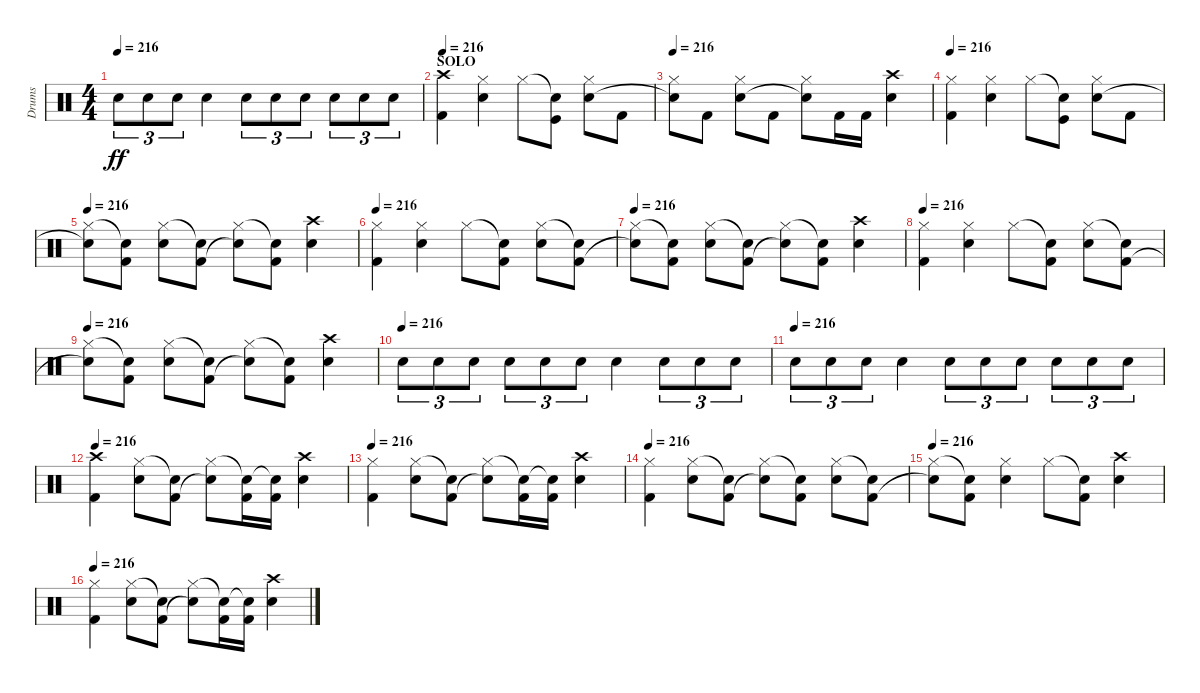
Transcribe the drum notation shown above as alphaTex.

\track ("Drums" "Drums") {instrument percussion}
\staff {score}
\articulation defaults
\ts (4 4)
\tempo 216
\clef neutral
\ks c "Snare (hit) 2".8{tu (3 2) dy ff} "Snare (hit) 2".8{tu (3 2)} "Snare (hit) 2".8{tu (3 2)} "Snare (hit) 2".4 "Snare (hit) 2".8{tu (3 2)} "Snare (hit) 2".8{tu (3 2)} "Snare (hit) 2".8{tu (3 2)} "Snare (hit) 2".8{tu (3 2)} "Snare (hit) 2".8{tu (3 2)} "Snare (hit) 2".8{tu (3 2)}
|
\section ("" "SOLO")
\tempo 216
("Crash high (hit)" "Kick (hit) 2").4 ("Hi-Hat (closed)" "Snare (hit) 2").4 "Hi-Hat (closed)".8 ("Snare (hit)"{t} "Kick (hit)").8 ("Hi-Hat (closed)" "Snare (hit) 2").8 "Kick (hit) 2".8 |
\tempo 216
("Hi-Hat (closed)" "Snare (hit)"{t}).8 "Kick (hit) 2".8 ("Hi-Hat (closed)" "Snare (hit) 2").8 "Kick (hit) 2".8 ("Hi-Hat (closed)" "Snare (hit)"{t}).8 "Kick (hit) 2".16 "Kick (hit) 2".16 ("Crash high (hit)" "Snare (hit) 2").4 |
\tempo 216
("Hi-Hat (closed)" "Kick (hit) 2").4 ("Hi-Hat (closed)" "Snare (hit) 2").4 "Hi-Hat (closed)".8 ("Snare (hit)"{t} "Kick (hit)").8 ("Hi-Hat (closed)" "Snare (hit) 2").8 "Kick (hit) 2".8 |
\tempo 216
("Hi-Hat (closed)" "Snare (hit)"{t}).8 ("Snare (hit)"{t} "Kick (hit) 2").8 ("Hi-Hat (closed)" "Snare (hit) 2").8 ("Snare (hit)"{t} "Kick (hit) 2").8 ("Hi-Hat (closed)" "Snare (hit)"{t}).8 ("Snare (hit)"{t} "Kick (hit) 2").8 ("Crash high (hit)" "Snare (hit) 2").4 |
\tempo 216
("Hi-Hat (closed)" "Kick (hit) 2").4 ("Hi-Hat (closed)" "Snare (hit) 2").4 "Hi-Hat (closed)".8 ("Snare (hit)"{t} "Kick (hit) 2").8 ("Hi-Hat (closed)" "Snare (hit) 2").8 ("Snare (hit)"{t} "Kick (hit) 2").8 |
\tempo 216
("Hi-Hat (closed)" "Snare (hit)"{t}).8 ("Snare (hit)"{t} "Kick (hit) 2").8 ("Hi-Hat (closed)" "Snare (hit) 2").8 ("Snare (hit)"{t} "Kick (hit) 2").8 ("Hi-Hat (closed)" "Snare (hit)"{t}).8 ("Snare (hit)"{t} "Kick (hit) 2").8 ("Crash high (hit)" "Snare (hit) 2").4 |
\tempo 216
("Hi-Hat (closed)" "Kick (hit) 2").4 ("Hi-Hat (closed)" "Snare (hit) 2").4 "Hi-Hat (closed)".8 ("Snare (hit)"{t} "Kick (hit) 2").8 ("Hi-Hat (closed)" "Snare (hit) 2").8 ("Snare (hit)"{t} "Kick (hit) 2").8 |
\tempo 216
("Hi-Hat (closed)" "Snare (hit)"{t}).8 ("Snare (hit)"{t} "Kick (hit) 2").8 ("Hi-Hat (closed)" "Snare (hit) 2").8 ("Snare (hit)"{t} "Kick (hit) 2").8 ("Hi-Hat (closed)" "Snare (hit)"{t}).8 ("Snare (hit)"{t} "Kick (hit) 2").8 ("Crash high (hit)" "Snare (hit) 2").4 |
\tempo (216)
"Snare (hit) 2".8{tu (3 2)} "Snare (hit) 2".8{tu (3 2)} "Snare (hit) 2".8{tu (3 2)} "Snare (hit) 2".8{tu (3 2)} "Snare (hit) 2".8{tu (3 2)} "Snare (hit) 2".8{tu (3 2)} "Snare (hit) 2".4 "Snare (hit) 2".8{tu (3 2)} "Snare (hit) 2".8{tu (3 2)} "Snare (hit) 2".8{tu (3 2)} |
\tempo (216)
"Snare (hit) 2".8{tu (3 2)} "Snare (hit) 2".8{tu (3 2)} "Snare (hit) 2".8{tu (3 2)} "Snare (hit) 2".4 "Snare (hit) 2".8{tu (3 2)} "Snare (hit) 2".8{tu (3 2)} "Snare (hit) 2".8{tu (3 2)} "Snare (hit) 2".8{tu (3 2)} "Snare (hit) 2".8{tu (3 2)} "Snare (hit) 2".8{tu (3 2)} |
\tempo 216
("Crash high (hit)" "Kick (hit) 2").4 ("Hi-Hat (closed)" "Snare (hit) 2").8 ("Snare (hit)"{t} "Kick (hit) 2").8 ("Hi-Hat (closed)" "Snare (hit)"{t}).8 ("Snare (hit)"{t} "Kick (hit) 2").16 ("Snare (hit)"{t} "Kick (hit) 2").16 ("Crash high (hit)" "Snare (hit) 2").4 |
\tempo 216
("Hi-Hat (closed)" "Kick (hit) 2").4 ("Hi-Hat (closed)" "Snare (hit) 2").8 ("Snare (hit)"{t} "Kick (hit) 2").8 ("Hi-Hat (closed)" "Snare (hit)"{t}).8 ("Snare (hit)"{t} "Kick (hit) 2").16 ("Snare (hit)"{t} "Kick (hit) 2").16 ("Crash high (hit)" "Snare (hit) 2").4 |
\tempo 216
("Hi-Hat (closed)" "Kick (hit) 2").4 ("Hi-Hat (closed)" "Snare (hit) 2").8 ("Snare (hit)"{t} "Kick (hit) 2").8 ("Hi-Hat (closed)" "Snare (hit)"{t}).8 ("Snare (hit)"{t} "Kick (hit) 2").8 ("Hi-Hat (closed)" "Snare (hit) 2").8 ("Snare (hit)"{t} "Kick (hit) 2").8 |
\tempo 216
("Hi-Hat (closed)" "Snare (hit)"{t}).8 ("Snare (hit)"{t} "Kick (hit) 2").8 ("Hi-Hat (closed)" "Snare (hit) 2").4 "Hi-Hat (closed)".8 ("Snare (hit)"{t} "Kick (hit) 2").8 ("Crash high (hit)" "Snare (hit) 2").4 |
\tempo 216
("Hi-Hat (closed)" "Kick (hit) 2").4 ("Hi-Hat (closed)" "Snare (hit) 2").8 ("Snare (hit)"{t} "Kick (hit) 2").8 ("Hi-Hat (closed)" "Snare (hit)"{t}).8 ("Snare (hit)"{t} "Kick (hit) 2").16 ("Snare (hit)"{t} "Kick (hit) 2").16 ("Crash high (hit)" "Snare (hit) 2").4
